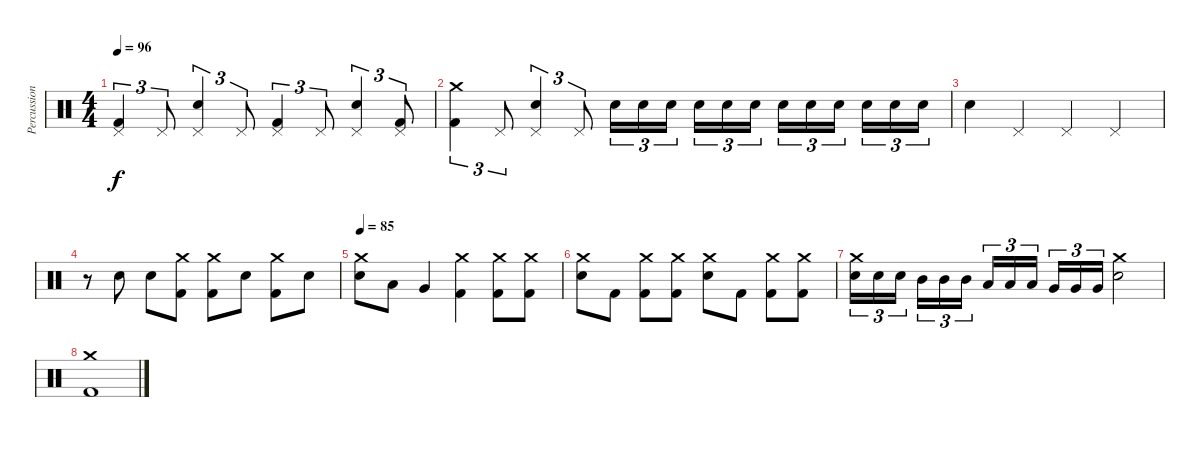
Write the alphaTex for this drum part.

\track ("Percussioni" "Percussion") {instrument percussion}
\staff {score}
\articulation defaults
\ts (4 4)
\tempo 96
\clef neutral
\ks c
("Kick (hit) 2" "Pedal Hi-Hat (hit)").4{tu (3 2) dy f} "Pedal Hi-Hat (hit)".8{tu (3 2)} ("Electric Snare (hit)" "Pedal Hi-Hat (hit)").4{tu (3 2)} "Pedal Hi-Hat (hit)".8{tu (3 2)} ("Kick (hit) 2" "Pedal Hi-Hat (hit)").4{tu (3 2)} "Pedal Hi-Hat (hit)".8{tu (3 2)} ("Electric Snare (hit)" "Pedal Hi-Hat (hit)").4{tu (3 2)} ("Kick (hit) 2" "Pedal Hi-Hat (hit)").8{tu (3 2)} |
("Kick (hit) 2" "Crash medium (hit)").4{tu (3 2)} "Pedal Hi-Hat (hit)".8{tu (3 2)} ("Electric Snare (hit)" "Pedal Hi-Hat (hit)").4{tu (3 2)} "Pedal Hi-Hat (hit)".8{tu (3 2)} "Electric Snare (hit)".16{tu (3 2)} "Electric Snare (hit)".16{tu (3 2)} "Electric Snare (hit)".16{tu (3 2)} "Electric Snare (hit)".16{tu (3 2)} "Electric Snare (hit)".16{tu (3 2)} "Electric Snare (hit)".16{tu (3 2)} "Electric Snare (hit)".16{tu (3 2)} "Electric Snare (hit)".16{tu (3 2)} "Electric Snare (hit)".16{tu (3 2)} "Electric Snare (hit)".16{tu (3 2)} "Electric Snare (hit)".16{tu (3 2)} "Electric Snare (hit)".16{tu (3 2)} |
"Electric Snare (hit)".4 "Pedal Hi-Hat (hit)".4 "Pedal Hi-Hat (hit)".4 "Pedal Hi-Hat (hit)".4 |
r.8 "Electric Snare (hit)".8 "Electric Snare (hit)".8 ("Kick (hit) 2" "Crash medium (hit)").8 ("Kick (hit) 2" "Crash medium (hit)").8 "Electric Snare (hit)".8 ("Kick (hit) 2" "Crash medium (hit)").8 "Electric Snare (hit)".8 |
\tempo 85
("Electric Snare (hit)" "Crash medium (hit)").8 "Low Tom (hit)".8 "Very Low Tom (hit)".4 ("Kick (hit) 2" "Crash medium (hit)").4 ("Kick (hit) 2" "Crash medium (hit)").8 ("Kick (hit) 2" "Crash medium (hit)").8 |
("Electric Snare (hit)" "Crash medium (hit)").8 "Kick (hit) 2".8 ("Kick (hit) 2" "Crash medium (hit)").8 ("Kick (hit) 2" "Crash medium (hit)").8 ("Electric Snare (hit)" "Crash medium (hit)").8 "Kick (hit) 2".8 ("Kick (hit) 2" "Crash medium (hit)").8 ("Kick (hit) 2" "Crash medium (hit)").8 |
("Electric Snare (hit)" "Crash medium (hit)").16{tu (3 2)} "Electric Snare (hit)".16{tu (3 2)} "Electric Snare (hit)".16{tu (3 2)} "Mid Tom (hit)".16{tu (3 2)} "Mid Tom (hit)".16{tu (3 2)} "Mid Tom (hit)".16{tu (3 2)} "Low Tom (hit)".16{tu (3 2)} "Low Tom (hit)".16{tu (3 2)} "Low Tom (hit)".16{tu (3 2)} "Very Low Tom (hit)".16{tu (3 2)} "Very Low Tom (hit)".16{tu (3 2)} "Very Low Tom (hit)".16{tu (3 2)} ("Electric Snare (hit)" "Crash medium (hit)").2 |
("Kick (hit) 2" "Crash medium (hit)").1
